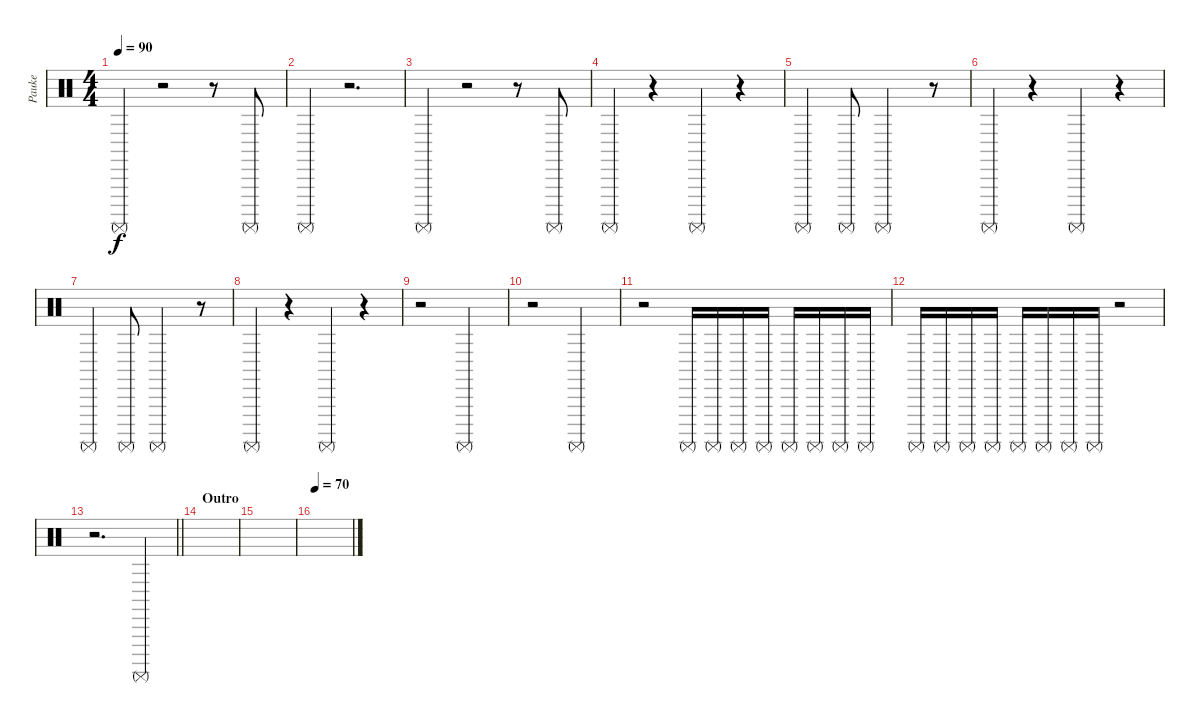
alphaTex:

\track ("Pauke" "Pauke") {instrument percussion}
\staff {score}
\articulation defaults
\ts (4 4)
\tempo 90
\clef neutral
\ks c "Surdo (mute)".4{dy f volume 15}
r.2 r.8 "Surdo (mute)".8{volume 14} |
"Surdo (mute)".4{volume 14} r.2{d} |
"Surdo (mute)".4 r.2 r.8 "Surdo (mute)".8{volume 14} |
"Surdo (mute)".4{volume 14} r.4 "Surdo (mute)".4 r.4 |
"Surdo (mute)".4 "Surdo (mute)".8 "Surdo (mute)".2 r.8 |
"Surdo (mute)".4 r.4 "Surdo (mute)".4 r.4 |
"Surdo (mute)".4 "Surdo (mute)".8 "Surdo (mute)".2 r.8 |
"Surdo (mute)".4 r.4 "Surdo (mute)".4 r.4 |
r.2 "Surdo (mute)".2 |
r.2 "Surdo (mute)".2 |
r.2 "Surdo (mute)".16{volume 8} "Surdo (mute)".16 "Surdo (mute)".16 "Surdo (mute)".16 "Surdo (mute)".16 "Surdo (mute)".16 "Surdo (mute)".16 "Surdo (mute)".16 |
"Surdo (mute)".16{volume 8} "Surdo (mute)".16 "Surdo (mute)".16 "Surdo (mute)".16 "Surdo (mute)".16 "Surdo (mute)".16 "Surdo (mute)".16 "Surdo (mute)".16 r.2 |
\barLineRight lightlight
r.2{d} "Surdo (mute)".4 |
\section ("" "Outro")
|
|
\tempo 70
